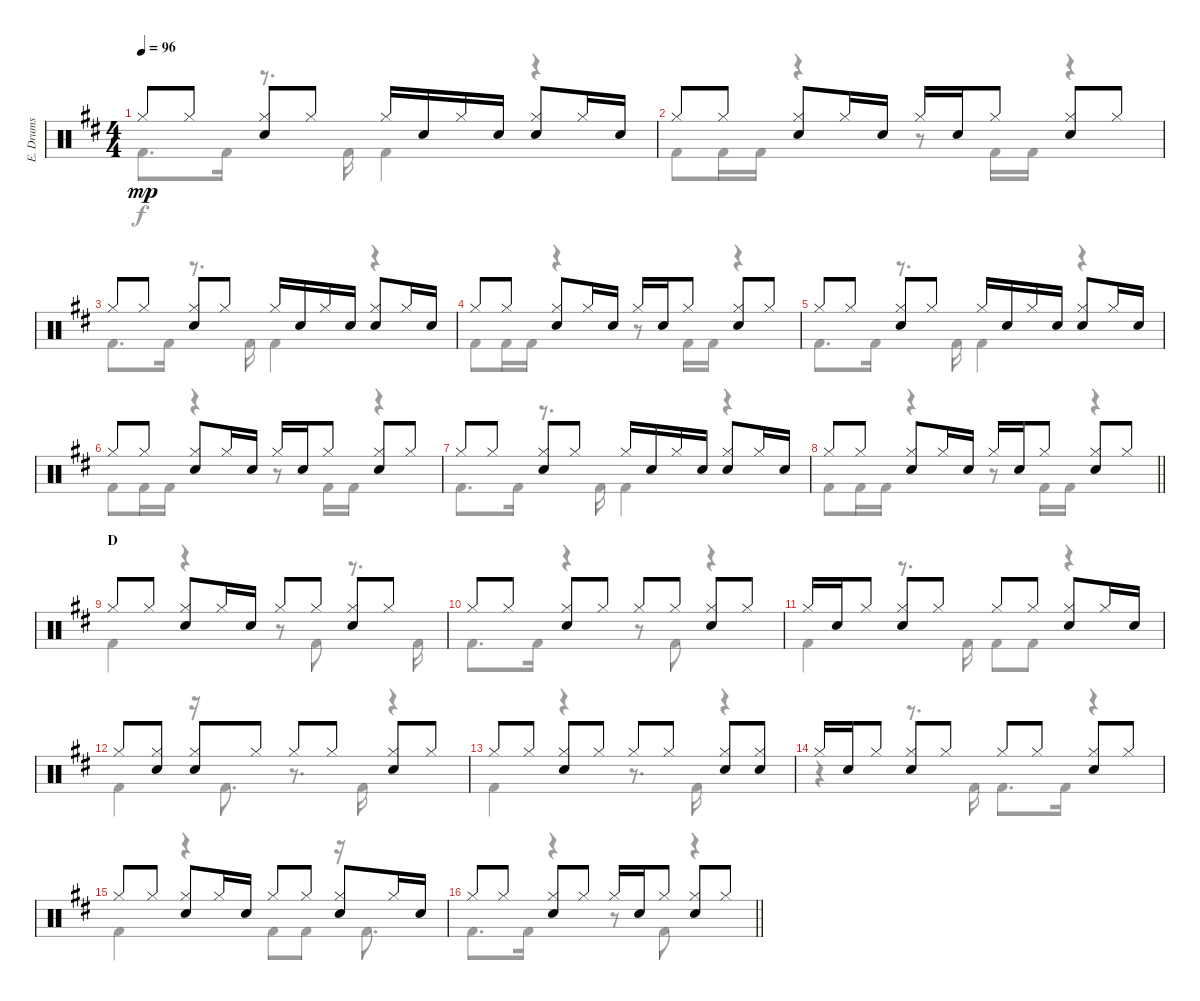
\track ("E. Drums" "E. Drums") {instrument percussion}
\staff {score}
\articulation defaults
\voice
\ts (4 4)
\tempo 96
\clef neutral
\ks d "Hi-Hat (closed)".8{dy mp} "Hi-Hat (closed)".8
("Hi-Hat (closed)" "Electric Snare (hit)").8 "Hi-Hat (closed)".8 "Hi-Hat (closed)".16 "Electric Snare (hit)".16 "Hi-Hat (closed)".16 "Electric Snare (hit)".16 ("Hi-Hat (closed)" "Electric Snare (hit)").8 "Hi-Hat (closed)".16 "Electric Snare (hit)".16 |
"Hi-Hat (closed)".8 "Hi-Hat (closed)".8 ("Hi-Hat (closed)" "Electric Snare (hit)").8 "Hi-Hat (closed)".16 "Electric Snare (hit)".16 "Hi-Hat (closed)".16 "Electric Snare (hit)".16 "Hi-Hat (closed)".8 ("Hi-Hat (closed)" "Electric Snare (hit)").8 "Hi-Hat (closed)".8 |
"Hi-Hat (closed)".8 "Hi-Hat (closed)".8 ("Hi-Hat (closed)" "Electric Snare (hit)").8 "Hi-Hat (closed)".8 "Hi-Hat (closed)".16 "Electric Snare (hit)".16 "Hi-Hat (closed)".16 "Electric Snare (hit)".16 ("Hi-Hat (closed)" "Electric Snare (hit)").8 "Hi-Hat (closed)".16 "Electric Snare (hit)".16 |
"Hi-Hat (closed)".8 "Hi-Hat (closed)".8 ("Hi-Hat (closed)" "Electric Snare (hit)").8 "Hi-Hat (closed)".16 "Electric Snare (hit)".16 "Hi-Hat (closed)".16 "Electric Snare (hit)".16 "Hi-Hat (closed)".8 ("Hi-Hat (closed)" "Electric Snare (hit)").8 "Hi-Hat (closed)".8 |
"Hi-Hat (closed)".8 "Hi-Hat (closed)".8 ("Hi-Hat (closed)" "Electric Snare (hit)").8 "Hi-Hat (closed)".8 "Hi-Hat (closed)".16 "Electric Snare (hit)".16 "Hi-Hat (closed)".16 "Electric Snare (hit)".16 ("Hi-Hat (closed)" "Electric Snare (hit)").8 "Hi-Hat (closed)".16 "Electric Snare (hit)".16 |
"Hi-Hat (closed)".8 "Hi-Hat (closed)".8 ("Hi-Hat (closed)" "Electric Snare (hit)").8 "Hi-Hat (closed)".16 "Electric Snare (hit)".16 "Hi-Hat (closed)".16 "Electric Snare (hit)".16 "Hi-Hat (closed)".8 ("Hi-Hat (closed)" "Electric Snare (hit)").8 "Hi-Hat (closed)".8 |
"Hi-Hat (closed)".8 "Hi-Hat (closed)".8 ("Hi-Hat (closed)" "Electric Snare (hit)").8 "Hi-Hat (closed)".8 "Hi-Hat (closed)".16 "Electric Snare (hit)".16 "Hi-Hat (closed)".16 "Electric Snare (hit)".16 ("Hi-Hat (closed)" "Electric Snare (hit)").8 "Hi-Hat (closed)".16 "Electric Snare (hit)".16 |
\barLineRight lightlight "Hi-Hat (closed)".8 "Hi-Hat (closed)".8
("Hi-Hat (closed)" "Electric Snare (hit)").8 "Hi-Hat (closed)".16 "Electric Snare (hit)".16 "Hi-Hat (closed)".16 "Electric Snare (hit)".16 "Hi-Hat (closed)".8 ("Hi-Hat (closed)" "Electric Snare (hit)").8 "Hi-Hat (closed)".8 |
\section ("" "D")
"Hi-Hat (closed)".8 "Hi-Hat (closed)".8 ("Hi-Hat (closed)" "Electric Snare (hit)").8 "Hi-Hat (closed)".16 "Electric Snare (hit)".16 "Hi-Hat (closed)".8 "Hi-Hat (closed)".8 ("Hi-Hat (closed)" "Electric Snare (hit)").8 "Hi-Hat (closed)".8 |
"Hi-Hat (closed)".8 "Hi-Hat (closed)".8 ("Hi-Hat (closed)" "Electric Snare (hit)").8 "Hi-Hat (closed)".8 "Hi-Hat (closed)".8 "Hi-Hat (closed)".8 ("Hi-Hat (closed)" "Electric Snare (hit)").8 "Hi-Hat (closed)".8 |
"Hi-Hat (closed)".16 "Electric Snare (hit)".16 "Hi-Hat (closed)".8 ("Hi-Hat (closed)" "Electric Snare (hit)").8 "Hi-Hat (closed)".8 "Hi-Hat (closed)".8 "Hi-Hat (closed)".8 ("Hi-Hat (closed)" "Electric Snare (hit)").8 "Hi-Hat (closed)".16 "Electric Snare (hit)".16 |
"Hi-Hat (closed)".8 ("Hi-Hat (closed)" "Electric Snare (hit)").8 ("Hi-Hat (closed)" "Electric Snare (hit)").8 "Hi-Hat (closed)".8 "Hi-Hat (closed)".8 "Hi-Hat (closed)".8 ("Hi-Hat (closed)" "Electric Snare (hit)").8 "Hi-Hat (closed)".8 |
"Hi-Hat (closed)".8 "Hi-Hat (closed)".8 ("Hi-Hat (closed)" "Electric Snare (hit)").8 "Hi-Hat (closed)".8 "Hi-Hat (closed)".8 "Hi-Hat (closed)".8 ("Hi-Hat (closed)" "Electric Snare (hit)").8 ("Hi-Hat (closed)" "Electric Snare (hit)").8 |
"Hi-Hat (closed)".16 "Electric Snare (hit)".16 "Hi-Hat (closed)".8 ("Hi-Hat (closed)" "Electric Snare (hit)").8 "Hi-Hat (closed)".8 "Hi-Hat (closed)".8 "Hi-Hat (closed)".8 ("Hi-Hat (closed)" "Electric Snare (hit)").8 "Hi-Hat (closed)".8 |
"Hi-Hat (closed)".8 "Hi-Hat (closed)".8 ("Hi-Hat (closed)" "Electric Snare (hit)").8 "Hi-Hat (closed)".16 "Electric Snare (hit)".16 "Hi-Hat (closed)".8 "Hi-Hat (closed)".8 ("Hi-Hat (closed)" "Electric Snare (hit)").8 "Hi-Hat (closed)".16 "Electric Snare (hit)".16 |
\barLineRight lightlight "Hi-Hat (closed)".8 "Hi-Hat (closed)".8
("Hi-Hat (closed)" "Electric Snare (hit)").8 "Hi-Hat (closed)".8 "Hi-Hat (closed)".16 "Electric Snare (hit)".16 "Hi-Hat (closed)".8 ("Hi-Hat (closed)" "Electric Snare (hit)").8 "Hi-Hat (closed)".8
\voice
\clef neutral
\ottava regular
\simile none
\ks d "Kick (hit) 2".8{d dy f} "Kick (hit) 2".16
r.8{d} "Kick (hit) 2".16 "Kick (hit) 2".4 r.4 |
"Kick (hit) 2".8 "Kick (hit) 2".16 "Kick (hit) 2".16 r.4 r.8 "Kick (hit) 2".16 "Kick (hit) 2".16 r.4 |
"Kick (hit) 2".8{d} "Kick (hit) 2".16 r.8{d} "Kick (hit) 2".16 "Kick (hit) 2".4 r.4 |
"Kick (hit) 2".8 "Kick (hit) 2".16 "Kick (hit) 2".16 r.4 r.8 "Kick (hit) 2".16 "Kick (hit) 2".16 r.4 |
"Kick (hit) 2".8{d} "Kick (hit) 2".16 r.8{d} "Kick (hit) 2".16 "Kick (hit) 2".4 r.4 |
"Kick (hit) 2".8 "Kick (hit) 2".16 "Kick (hit) 2".16 r.4 r.8 "Kick (hit) 2".16 "Kick (hit) 2".16 r.4 |
"Kick (hit) 2".8{d} "Kick (hit) 2".16 r.8{d} "Kick (hit) 2".16 "Kick (hit) 2".4 r.4 |
\barLineRight lightlight "Kick (hit) 2".8 "Kick (hit) 2".16 "Kick (hit) 2".16
r.4 r.8 "Kick (hit) 2".16 "Kick (hit) 2".16 r.4 |
"Kick (hit) 2".4 r.4 r.8 "Kick (hit) 2".8 r.8{d} "Kick (hit) 2".16 |
"Kick (hit) 2".8{d} "Kick (hit) 2".16 r.4 r.8 "Kick (hit) 2".8 r.4 |
"Kick (hit) 2".4 r.8{d} "Kick (hit) 2".16 "Kick (hit) 2".8 "Kick (hit) 2".8 r.4 |
"Kick (hit) 2".4 r.16 "Kick (hit) 2".8{d} r.8{d} "Kick (hit) 2".16 r.4 |
"Kick (hit) 2".4 r.4 r.8{d} "Kick (hit) 2".16 r.4 |
r.4 r.8{d} "Kick (hit) 2".16 "Kick (hit) 2".8{d} "Kick (hit) 2".16 r.4 |
"Kick (hit) 2".4 r.4 "Kick (hit) 2".8 "Kick (hit) 2".8 r.16 "Kick (hit) 2".8{d} |
\barLineRight lightlight "Kick (hit) 2".8{d} "Kick (hit) 2".16
r.4 r.8 "Kick (hit) 2".8 r.4
